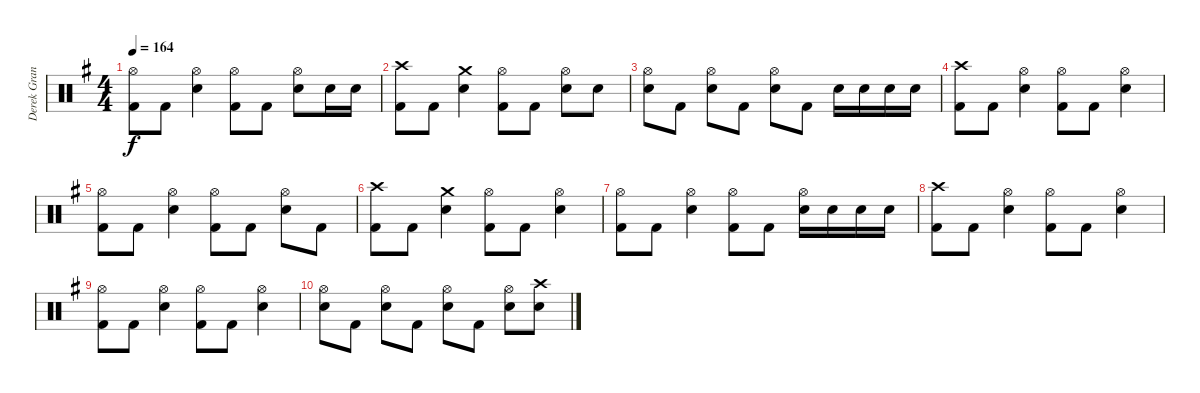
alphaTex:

\track ("Derek Grant - Drums" "Derek Gran") {instrument percussion}
\staff {score}
\articulation defaults
\ts (4 4)
\tempo 164
\clef neutral
\ks eminor
("Kick (hit) 2" "Hi-Hat (open)").8{dy f} "Kick (hit) 2".8 ("Snare (hit) 2" "Hi-Hat (open)").4 ("Kick (hit) 2" "Hi-Hat (open)").8 "Kick (hit) 2".8 ("Snare (hit) 2" "Hi-Hat (open)").8 "Snare (hit) 2".16 "Snare (hit) 2".16 |
("Kick (hit) 2" "Crash high (hit)").8 "Kick (hit) 2".8 ("Snare (hit) 2" "Crash medium (hit)").4 ("Kick (hit) 2" "Hi-Hat (open)").8 "Kick (hit) 2".8 ("Snare (hit) 2" "Hi-Hat (open)").8 "Snare (hit) 2".8 |
("Snare (hit) 2" "Hi-Hat (open)").8 "Kick (hit) 2".8 ("Snare (hit) 2" "Hi-Hat (open)").8 "Kick (hit) 2".8 ("Snare (hit) 2" "Hi-Hat (open)").8 "Kick (hit) 2".8 "Snare (hit) 2".16 "Snare (hit) 2".16 "Snare (hit) 2".16 "Snare (hit) 2".16 |
("Kick (hit) 2" "Crash high (hit)").8 "Kick (hit) 2".8 ("Snare (hit) 2" "Hi-Hat (open)").4 ("Kick (hit) 2" "Hi-Hat (open)").8 "Kick (hit) 2".8 ("Snare (hit) 2" "Hi-Hat (open)").4 |
("Kick (hit) 2" "Hi-Hat (open)").8 "Kick (hit) 2".8 ("Snare (hit) 2" "Hi-Hat (open)").4 ("Kick (hit) 2" "Hi-Hat (open)").8 "Kick (hit) 2".8 ("Snare (hit) 2" "Hi-Hat (open)").8 "Kick (hit) 2".8 |
("Kick (hit) 2" "Crash high (hit)").8 "Kick (hit) 2".8 ("Snare (hit) 2" "Crash medium (hit)").4 ("Kick (hit) 2" "Hi-Hat (open)").8 "Kick (hit) 2".8 ("Snare (hit) 2" "Hi-Hat (open)").4 |
("Kick (hit) 2" "Hi-Hat (open)").8 "Kick (hit) 2".8 ("Snare (hit) 2" "Hi-Hat (open)").4 ("Kick (hit) 2" "Hi-Hat (open)").8 "Kick (hit) 2".8 ("Snare (hit) 2" "Hi-Hat (open)").16 "Snare (hit) 2".16 "Snare (hit) 2".16 "Snare (hit) 2".16 |
("Kick (hit) 2" "Crash high (hit)").8 "Kick (hit) 2".8 ("Snare (hit) 2" "Hi-Hat (open)").4 ("Kick (hit) 2" "Hi-Hat (open)").8 "Kick (hit) 2".8 ("Snare (hit) 2" "Hi-Hat (open)").4 |
("Kick (hit) 2" "Hi-Hat (open)").8 "Kick (hit) 2".8 ("Snare (hit) 2" "Hi-Hat (open)").4 ("Kick (hit) 2" "Hi-Hat (open)").8 "Kick (hit) 2".8 ("Snare (hit) 2" "Hi-Hat (open)").4 |
("Snare (hit) 2" "Hi-Hat (open)").8 "Kick (hit) 2".8 ("Snare (hit) 2" "Hi-Hat (open)").8 "Kick (hit) 2".8 ("Snare (hit) 2" "Hi-Hat (open)").8 "Kick (hit) 2".8 ("Snare (hit) 2" "Hi-Hat (open)").8 ("Snare (hit) 2" "Crash high (hit)").8
